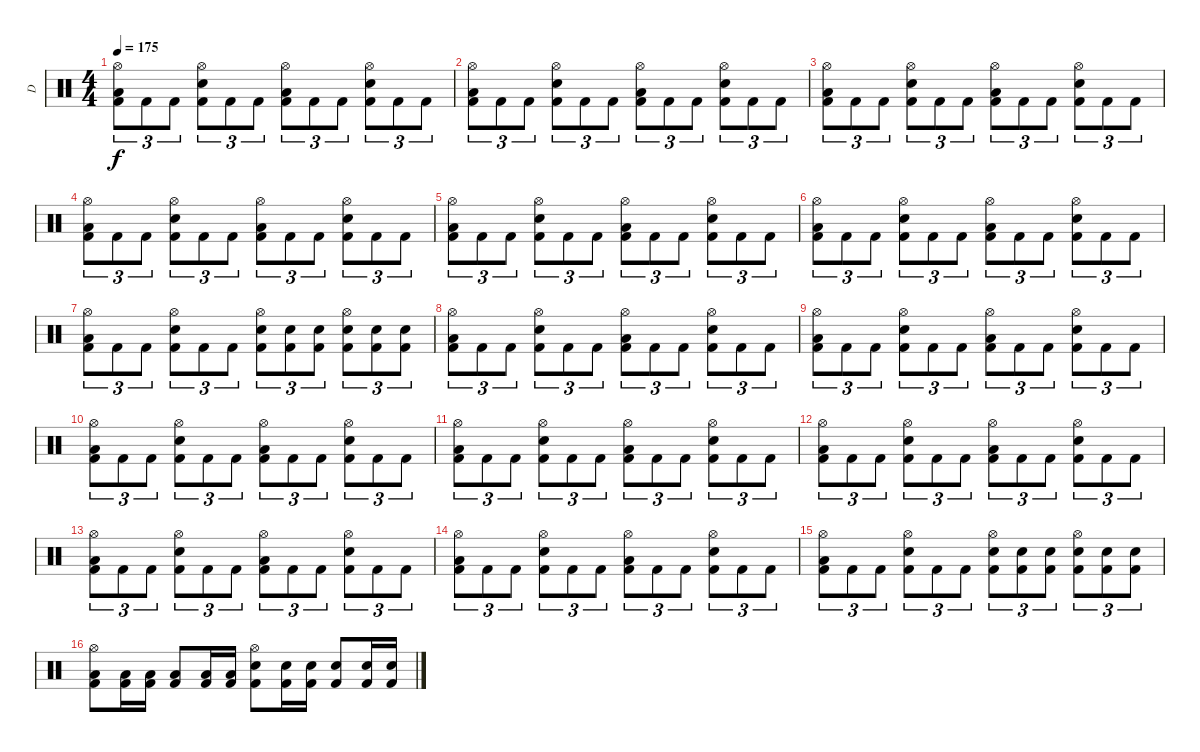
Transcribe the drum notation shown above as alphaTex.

\track ("D" "D") {instrument percussion}
\staff {score}
\articulation defaults
\ts (4 4)
\tempo 175
\clef neutral
\ks c
("Hi-Hat (open)" "Low Floor Tom (hit)" "Kick (hit) 2").8{tu (3 2) dy f} "Kick (hit) 2".8{tu (3 2)} "Kick (hit) 2".8{tu (3 2)} ("Hi-Hat (open)" "Electric Snare (hit)" "Kick (hit) 2").8{tu (3 2)} "Kick (hit) 2".8{tu (3 2)} "Kick (hit) 2".8{tu (3 2)} ("Hi-Hat (open)" "Low Floor Tom (hit)" "Kick (hit) 2").8{tu (3 2)} "Kick (hit) 2".8{tu (3 2)} "Kick (hit) 2".8{tu (3 2)} ("Hi-Hat (open)" "Electric Snare (hit)" "Kick (hit) 2").8{tu (3 2)} "Kick (hit) 2".8{tu (3 2)} "Kick (hit) 2".8{tu (3 2)} |
("Hi-Hat (open)" "Low Floor Tom (hit)" "Kick (hit) 2").8{tu (3 2)} "Kick (hit) 2".8{tu (3 2)} "Kick (hit) 2".8{tu (3 2)} ("Hi-Hat (open)" "Electric Snare (hit)" "Kick (hit) 2").8{tu (3 2)} "Kick (hit) 2".8{tu (3 2)} "Kick (hit) 2".8{tu (3 2)} ("Hi-Hat (open)" "Low Floor Tom (hit)" "Kick (hit) 2").8{tu (3 2)} "Kick (hit) 2".8{tu (3 2)} "Kick (hit) 2".8{tu (3 2)} ("Hi-Hat (open)" "Electric Snare (hit)" "Kick (hit) 2").8{tu (3 2)} "Kick (hit) 2".8{tu (3 2)} "Kick (hit) 2".8{tu (3 2)} |
("Hi-Hat (open)" "Low Floor Tom (hit)" "Kick (hit) 2").8{tu (3 2)} "Kick (hit) 2".8{tu (3 2)} "Kick (hit) 2".8{tu (3 2)} ("Hi-Hat (open)" "Electric Snare (hit)" "Kick (hit) 2").8{tu (3 2)} "Kick (hit) 2".8{tu (3 2)} "Kick (hit) 2".8{tu (3 2)} ("Hi-Hat (open)" "Low Floor Tom (hit)" "Kick (hit) 2").8{tu (3 2)} "Kick (hit) 2".8{tu (3 2)} "Kick (hit) 2".8{tu (3 2)} ("Hi-Hat (open)" "Electric Snare (hit)" "Kick (hit) 2").8{tu (3 2)} "Kick (hit) 2".8{tu (3 2)} "Kick (hit) 2".8{tu (3 2)} |
("Hi-Hat (open)" "Low Floor Tom (hit)" "Kick (hit) 2").8{tu (3 2)} "Kick (hit) 2".8{tu (3 2)} "Kick (hit) 2".8{tu (3 2)} ("Hi-Hat (open)" "Electric Snare (hit)" "Kick (hit) 2").8{tu (3 2)} "Kick (hit) 2".8{tu (3 2)} "Kick (hit) 2".8{tu (3 2)} ("Hi-Hat (open)" "Low Floor Tom (hit)" "Kick (hit) 2").8{tu (3 2)} "Kick (hit) 2".8{tu (3 2)} "Kick (hit) 2".8{tu (3 2)} ("Hi-Hat (open)" "Electric Snare (hit)" "Kick (hit) 2").8{tu (3 2)} "Kick (hit) 2".8{tu (3 2)} "Kick (hit) 2".8{tu (3 2)} |
("Hi-Hat (open)" "Low Floor Tom (hit)" "Kick (hit) 2").8{tu (3 2)} "Kick (hit) 2".8{tu (3 2)} "Kick (hit) 2".8{tu (3 2)} ("Hi-Hat (open)" "Electric Snare (hit)" "Kick (hit) 2").8{tu (3 2)} "Kick (hit) 2".8{tu (3 2)} "Kick (hit) 2".8{tu (3 2)} ("Hi-Hat (open)" "Low Floor Tom (hit)" "Kick (hit) 2").8{tu (3 2)} "Kick (hit) 2".8{tu (3 2)} "Kick (hit) 2".8{tu (3 2)} ("Hi-Hat (open)" "Electric Snare (hit)" "Kick (hit) 2").8{tu (3 2)} "Kick (hit) 2".8{tu (3 2)} "Kick (hit) 2".8{tu (3 2)} |
("Hi-Hat (open)" "Low Floor Tom (hit)" "Kick (hit) 2").8{tu (3 2)} "Kick (hit) 2".8{tu (3 2)} "Kick (hit) 2".8{tu (3 2)} ("Hi-Hat (open)" "Electric Snare (hit)" "Kick (hit) 2").8{tu (3 2)} "Kick (hit) 2".8{tu (3 2)} "Kick (hit) 2".8{tu (3 2)} ("Hi-Hat (open)" "Low Floor Tom (hit)" "Kick (hit) 2").8{tu (3 2)} "Kick (hit) 2".8{tu (3 2)} "Kick (hit) 2".8{tu (3 2)} ("Hi-Hat (open)" "Electric Snare (hit)" "Kick (hit) 2").8{tu (3 2)} "Kick (hit) 2".8{tu (3 2)} "Kick (hit) 2".8{tu (3 2)} |
("Hi-Hat (open)" "Low Floor Tom (hit)" "Kick (hit) 2").8{tu (3 2)} "Kick (hit) 2".8{tu (3 2)} "Kick (hit) 2".8{tu (3 2)} ("Hi-Hat (open)" "Electric Snare (hit)" "Kick (hit) 2").8{tu (3 2)} "Kick (hit) 2".8{tu (3 2)} "Kick (hit) 2".8{tu (3 2)} ("Hi-Hat (open)" "Electric Snare (hit)" "Kick (hit) 2").8{tu (3 2)} ("Electric Snare (hit)" "Kick (hit) 2").8{tu (3 2)} ("Snare (hit) 2" "Kick (hit) 2").8{tu (3 2)} ("Hi-Hat (open)" "Electric Snare (hit)" "Kick (hit) 2").8{tu (3 2)} ("Electric Snare (hit)" "Kick (hit) 2").8{tu (3 2)} ("Electric Snare (hit)" "Kick (hit) 2").8{tu (3 2)} |
("Hi-Hat (open)" "Low Floor Tom (hit)" "Kick (hit) 2").8{tu (3 2)} "Kick (hit) 2".8{tu (3 2)} "Kick (hit) 2".8{tu (3 2)} ("Hi-Hat (open)" "Electric Snare (hit)" "Kick (hit) 2").8{tu (3 2)} "Kick (hit) 2".8{tu (3 2)} "Kick (hit) 2".8{tu (3 2)} ("Hi-Hat (open)" "Low Floor Tom (hit)" "Kick (hit) 2").8{tu (3 2)} "Kick (hit) 2".8{tu (3 2)} "Kick (hit) 2".8{tu (3 2)} ("Hi-Hat (open)" "Electric Snare (hit)" "Kick (hit) 2").8{tu (3 2)} "Kick (hit) 2".8{tu (3 2)} "Kick (hit) 2".8{tu (3 2)} |
("Hi-Hat (open)" "Low Floor Tom (hit)" "Kick (hit) 2").8{tu (3 2)} "Kick (hit) 2".8{tu (3 2)} "Kick (hit) 2".8{tu (3 2)} ("Hi-Hat (open)" "Electric Snare (hit)" "Kick (hit) 2").8{tu (3 2)} "Kick (hit) 2".8{tu (3 2)} "Kick (hit) 2".8{tu (3 2)} ("Hi-Hat (open)" "Low Floor Tom (hit)" "Kick (hit) 2").8{tu (3 2)} "Kick (hit) 2".8{tu (3 2)} "Kick (hit) 2".8{tu (3 2)} ("Hi-Hat (open)" "Electric Snare (hit)" "Kick (hit) 2").8{tu (3 2)} "Kick (hit) 2".8{tu (3 2)} "Kick (hit) 2".8{tu (3 2)} |
("Hi-Hat (open)" "Low Floor Tom (hit)" "Kick (hit) 2").8{tu (3 2)} "Kick (hit) 2".8{tu (3 2)} "Kick (hit) 2".8{tu (3 2)} ("Hi-Hat (open)" "Electric Snare (hit)" "Kick (hit) 2").8{tu (3 2)} "Kick (hit) 2".8{tu (3 2)} "Kick (hit) 2".8{tu (3 2)} ("Hi-Hat (open)" "Low Floor Tom (hit)" "Kick (hit) 2").8{tu (3 2)} "Kick (hit) 2".8{tu (3 2)} "Kick (hit) 2".8{tu (3 2)} ("Hi-Hat (open)" "Electric Snare (hit)" "Kick (hit) 2").8{tu (3 2)} "Kick (hit) 2".8{tu (3 2)} "Kick (hit) 2".8{tu (3 2)} |
("Hi-Hat (open)" "Low Floor Tom (hit)" "Kick (hit) 2").8{tu (3 2)} "Kick (hit) 2".8{tu (3 2)} "Kick (hit) 2".8{tu (3 2)} ("Hi-Hat (open)" "Electric Snare (hit)" "Kick (hit) 2").8{tu (3 2)} "Kick (hit) 2".8{tu (3 2)} "Kick (hit) 2".8{tu (3 2)} ("Hi-Hat (open)" "Low Floor Tom (hit)" "Kick (hit) 2").8{tu (3 2)} "Kick (hit) 2".8{tu (3 2)} "Kick (hit) 2".8{tu (3 2)} ("Hi-Hat (open)" "Electric Snare (hit)" "Kick (hit) 2").8{tu (3 2)} "Kick (hit) 2".8{tu (3 2)} "Kick (hit) 2".8{tu (3 2)} |
("Hi-Hat (open)" "Low Floor Tom (hit)" "Kick (hit) 2").8{tu (3 2)} "Kick (hit) 2".8{tu (3 2)} "Kick (hit) 2".8{tu (3 2)} ("Hi-Hat (open)" "Electric Snare (hit)" "Kick (hit) 2").8{tu (3 2)} "Kick (hit) 2".8{tu (3 2)} "Kick (hit) 2".8{tu (3 2)} ("Hi-Hat (open)" "Low Floor Tom (hit)" "Kick (hit) 2").8{tu (3 2)} "Kick (hit) 2".8{tu (3 2)} "Kick (hit) 2".8{tu (3 2)} ("Hi-Hat (open)" "Electric Snare (hit)" "Kick (hit) 2").8{tu (3 2)} "Kick (hit) 2".8{tu (3 2)} "Kick (hit) 2".8{tu (3 2)} |
("Hi-Hat (open)" "Low Floor Tom (hit)" "Kick (hit) 2").8{tu (3 2)} "Kick (hit) 2".8{tu (3 2)} "Kick (hit) 2".8{tu (3 2)} ("Hi-Hat (open)" "Electric Snare (hit)" "Kick (hit) 2").8{tu (3 2)} "Kick (hit) 2".8{tu (3 2)} "Kick (hit) 2".8{tu (3 2)} ("Hi-Hat (open)" "Low Floor Tom (hit)" "Kick (hit) 2").8{tu (3 2)} "Kick (hit) 2".8{tu (3 2)} "Kick (hit) 2".8{tu (3 2)} ("Hi-Hat (open)" "Electric Snare (hit)" "Kick (hit) 2").8{tu (3 2)} "Kick (hit) 2".8{tu (3 2)} "Kick (hit) 2".8{tu (3 2)} |
("Hi-Hat (open)" "Low Floor Tom (hit)" "Kick (hit) 2").8{tu (3 2)} "Kick (hit) 2".8{tu (3 2)} "Kick (hit) 2".8{tu (3 2)} ("Hi-Hat (open)" "Electric Snare (hit)" "Kick (hit) 2").8{tu (3 2)} "Kick (hit) 2".8{tu (3 2)} "Kick (hit) 2".8{tu (3 2)} ("Hi-Hat (open)" "Low Floor Tom (hit)" "Kick (hit) 2").8{tu (3 2)} "Kick (hit) 2".8{tu (3 2)} "Kick (hit) 2".8{tu (3 2)} ("Hi-Hat (open)" "Electric Snare (hit)" "Kick (hit) 2").8{tu (3 2)} "Kick (hit) 2".8{tu (3 2)} "Kick (hit) 2".8{tu (3 2)} |
("Hi-Hat (open)" "Low Floor Tom (hit)" "Kick (hit) 2").8{tu (3 2)} "Kick (hit) 2".8{tu (3 2)} "Kick (hit) 2".8{tu (3 2)} ("Hi-Hat (open)" "Electric Snare (hit)" "Kick (hit) 2").8{tu (3 2)} "Kick (hit) 2".8{tu (3 2)} "Kick (hit) 2".8{tu (3 2)} ("Hi-Hat (open)" "Electric Snare (hit)" "Kick (hit) 2").8{tu (3 2)} ("Electric Snare (hit)" "Kick (hit) 2").8{tu (3 2)} ("Snare (hit) 2" "Kick (hit) 2").8{tu (3 2)} ("Hi-Hat (open)" "Electric Snare (hit)" "Kick (hit) 2").8{tu (3 2)} ("Electric Snare (hit)" "Kick (hit) 2").8{tu (3 2)} ("Electric Snare (hit)" "Kick (hit) 2").8{tu (3 2)} |
("Hi-Hat (open)" "Low Floor Tom (hit)" "Kick (hit) 2").8 ("Low Tom (hit)" "Kick (hit) 2").16 ("Low Tom (hit)" "Kick (hit) 2").16 ("Low Tom (hit)" "Kick (hit) 2").8 ("Low Tom (hit)" "Kick (hit) 2").16 ("Low Tom (hit)" "Kick (hit) 2").16 ("Hi-Hat (open)" "Snare (hit) 2" "Kick (hit) 2").8 ("Electric Snare (hit)" "Kick (hit) 2").16 ("Electric Snare (hit)" "Kick (hit) 2").16 ("Electric Snare (hit)" "Kick (hit) 2").8 ("Electric Snare (hit)" "Kick (hit) 2").16 ("Electric Snare (hit)" "Kick (hit) 2").16
